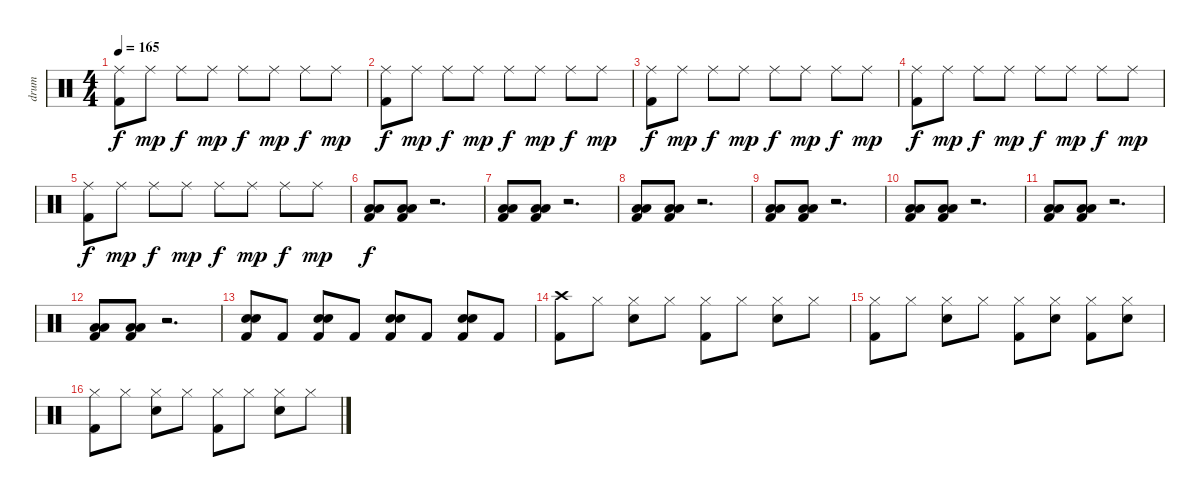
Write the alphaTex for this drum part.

\track ("drum" "drum") {instrument percussion}
\staff {score}
\articulation defaults
\ts (4 4)
\tempo 165
\clef neutral
\ks c
("Ride (middle)" "Kick (hit) 2").8{dy f} "Ride (middle)".8{dy mp} "Ride (middle)".8{dy f} "Ride (middle)".8{dy mp} "Ride (middle)".8{dy f} "Ride (middle)".8{dy mp} "Ride (middle)".8{dy f} "Ride (middle)".8{dy mp} |
("Ride (middle)" "Kick (hit) 2").8{dy f} "Ride (middle)".8{dy mp} "Ride (middle)".8{dy f} "Ride (middle)".8{dy mp} "Ride (middle)".8{dy f} "Ride (middle)".8{dy mp} "Ride (middle)".8{dy f} "Ride (middle)".8{dy mp} |
("Ride (middle)" "Kick (hit) 2").8{dy f} "Ride (middle)".8{dy mp} "Ride (middle)".8{dy f} "Ride (middle)".8{dy mp} "Ride (middle)".8{dy f} "Ride (middle)".8{dy mp} "Ride (middle)".8{dy f} "Ride (middle)".8{dy mp} |
("Ride (middle)" "Kick (hit) 2").8{dy f} "Ride (middle)".8{dy mp} "Ride (middle)".8{dy f} "Ride (middle)".8{dy mp} "Ride (middle)".8{dy f} "Ride (middle)".8{dy mp} "Ride (middle)".8{dy f} "Ride (middle)".8{dy mp} |
("Ride (middle)" "Kick (hit) 2").8{dy f} "Ride (middle)".8{dy mp} "Ride (middle)".8{dy f} "Ride (middle)".8{dy mp} "Ride (middle)".8{dy f} "Ride (middle)".8{dy mp} "Ride (middle)".8{dy f} "Ride (middle)".8{dy mp} |
("Low Floor Tom (hit)" "Low Floor Tom (hit)" "Kick (hit) 2").8{dy f} ("Low Floor Tom (hit)" "Low Floor Tom (hit)" "Kick (hit) 2").8 r.2{d} |
("Low Floor Tom (hit)" "Low Floor Tom (hit)" "Kick (hit) 2").8 ("Low Floor Tom (hit)" "Low Floor Tom (hit)" "Kick (hit) 2").8 r.2{d} |
("Low Floor Tom (hit)" "Low Floor Tom (hit)" "Kick (hit) 2").8 ("Low Floor Tom (hit)" "Low Floor Tom (hit)" "Kick (hit) 2").8 r.2{d} |
("Low Floor Tom (hit)" "Low Floor Tom (hit)" "Kick (hit) 2").8 ("Low Floor Tom (hit)" "Low Floor Tom (hit)" "Kick (hit) 2").8 r.2{d} |
("Low Floor Tom (hit)" "Low Floor Tom (hit)" "Kick (hit) 2").8 ("Low Floor Tom (hit)" "Low Floor Tom (hit)" "Kick (hit) 2").8 r.2{d} |
("Low Floor Tom (hit)" "Low Floor Tom (hit)" "Kick (hit) 2").8 ("Low Floor Tom (hit)" "Low Floor Tom (hit)" "Kick (hit) 2").8 r.2{d} |
("Low Floor Tom (hit)" "Low Floor Tom (hit)" "Kick (hit) 2").8 ("Low Floor Tom (hit)" "Low Floor Tom (hit)" "Kick (hit) 2").8 r.2{d} |
("Snare (hit) 2" "Snare (hit) 2" "Kick (hit) 2").8 "Kick (hit) 2".8 ("Snare (hit) 2" "Snare (hit) 2" "Kick (hit) 2").8 "Kick (hit) 2".8 ("Snare (hit) 2" "Snare (hit) 2" "Kick (hit) 2").8 "Kick (hit) 2".8 ("Snare (hit) 2" "Snare (hit) 2" "Kick (hit) 2").8 "Kick (hit) 2".8 |
("Crash high (hit)" "Kick (hit) 2").8 "Hi-Hat (closed)".8 ("Hi-Hat (closed)" "Snare (hit) 2").8 "Hi-Hat (closed)".8 ("Hi-Hat (closed)" "Kick (hit) 2").8 "Hi-Hat (closed)".8 ("Hi-Hat (closed)" "Snare (hit) 2").8 "Hi-Hat (closed)".8 |
("Hi-Hat (closed)" "Kick (hit) 2").8 "Hi-Hat (closed)".8 ("Hi-Hat (closed)" "Snare (hit) 2").8 "Hi-Hat (closed)".8 ("Hi-Hat (closed)" "Kick (hit) 2").8 ("Hi-Hat (closed)" "Snare (hit) 2").8 ("Hi-Hat (closed)" "Kick (hit) 2").8 ("Hi-Hat (closed)" "Snare (hit) 2").8 |
("Hi-Hat (closed)" "Kick (hit) 2").8 "Hi-Hat (closed)".8 ("Hi-Hat (closed)" "Snare (hit) 2").8 "Hi-Hat (closed)".8 ("Hi-Hat (closed)" "Kick (hit) 2").8 "Hi-Hat (closed)".8 ("Hi-Hat (closed)" "Snare (hit) 2").8 "Hi-Hat (closed)".8
